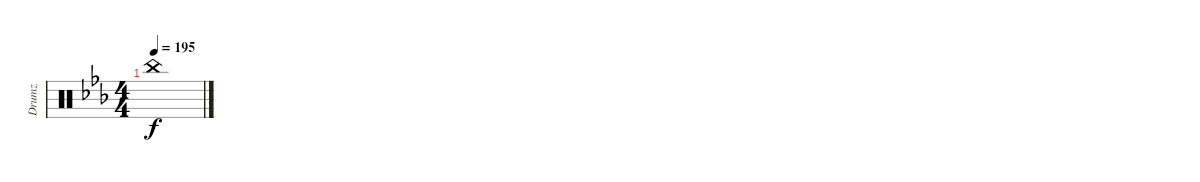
\track ("Drumz" "Drumz") {instrument percussion}
\staff {score}
\articulation defaults
\ts (4 4)
\tempo 195
\clef neutral
\ks cminor "China (hit)".1{dy f}
